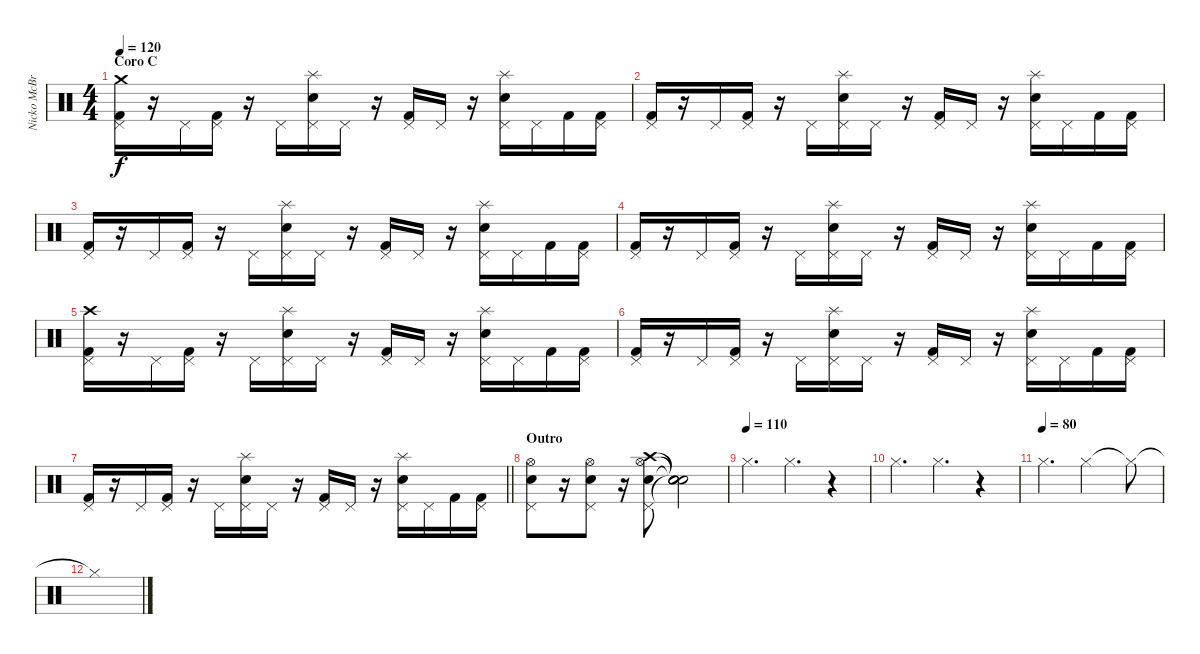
\track ("Nicko McBrain" "Nicko McBr") {instrument percussion}
\staff {score}
\articulation defaults
\ts (4 4)
\section ("" "Coro C")
\tempo 120
\clef neutral
\ks c
("Kick (hit) 2" "Pedal Hi-Hat (hit)" "Crash medium (hit)").16{dy f} r.16 "Pedal Hi-Hat (hit)".16 ("Kick (hit) 2" "Pedal Hi-Hat (hit)").16 r.16 "Pedal Hi-Hat (hit)".16 ("Snare (hit) 2" "Pedal Hi-Hat (hit)" "Splash (hit)").16 "Pedal Hi-Hat (hit)".16 r.16 ("Kick (hit) 2" "Pedal Hi-Hat (hit)").16 "Pedal Hi-Hat (hit)".16 r.16 ("Snare (hit) 2" "Pedal Hi-Hat (hit)" "Splash (hit)").16 "Pedal Hi-Hat (hit)".16 "Kick (hit) 2".16 ("Kick (hit) 2" "Pedal Hi-Hat (hit)").16 |
("Kick (hit) 2" "Pedal Hi-Hat (hit)").16 r.16 "Pedal Hi-Hat (hit)".16 ("Kick (hit) 2" "Pedal Hi-Hat (hit)").16 r.16 "Pedal Hi-Hat (hit)".16 ("Snare (hit) 2" "Pedal Hi-Hat (hit)" "Splash (hit)").16 "Pedal Hi-Hat (hit)".16 r.16 ("Kick (hit) 2" "Pedal Hi-Hat (hit)").16 "Pedal Hi-Hat (hit)".16 r.16 ("Snare (hit) 2" "Pedal Hi-Hat (hit)" "Splash (hit)").16 "Pedal Hi-Hat (hit)".16 "Kick (hit) 2".16 ("Kick (hit) 2" "Pedal Hi-Hat (hit)").16 |
("Kick (hit) 2" "Pedal Hi-Hat (hit)").16 r.16 "Pedal Hi-Hat (hit)".16 ("Kick (hit) 2" "Pedal Hi-Hat (hit)").16 r.16 "Pedal Hi-Hat (hit)".16 ("Snare (hit) 2" "Pedal Hi-Hat (hit)" "Splash (hit)").16 "Pedal Hi-Hat (hit)".16 r.16 ("Kick (hit) 2" "Pedal Hi-Hat (hit)").16 "Pedal Hi-Hat (hit)".16 r.16 ("Snare (hit) 2" "Pedal Hi-Hat (hit)" "Splash (hit)").16 "Pedal Hi-Hat (hit)".16 "Kick (hit) 2".16 ("Kick (hit) 2" "Pedal Hi-Hat (hit)").16 |
("Kick (hit) 2" "Pedal Hi-Hat (hit)").16 r.16 "Pedal Hi-Hat (hit)".16 ("Kick (hit) 2" "Pedal Hi-Hat (hit)").16 r.16 "Pedal Hi-Hat (hit)".16 ("Snare (hit) 2" "Pedal Hi-Hat (hit)" "Splash (hit)").16 "Pedal Hi-Hat (hit)".16 r.16 ("Kick (hit) 2" "Pedal Hi-Hat (hit)").16 "Pedal Hi-Hat (hit)".16 r.16 ("Snare (hit) 2" "Pedal Hi-Hat (hit)" "Splash (hit)").16 "Pedal Hi-Hat (hit)".16 "Kick (hit) 2".16 ("Kick (hit) 2" "Pedal Hi-Hat (hit)").16 |
("Kick (hit) 2" "Pedal Hi-Hat (hit)" "Crash high (hit)").16 r.16 "Pedal Hi-Hat (hit)".16 ("Kick (hit) 2" "Pedal Hi-Hat (hit)").16 r.16 "Pedal Hi-Hat (hit)".16 ("Snare (hit) 2" "Pedal Hi-Hat (hit)" "Splash (hit)").16 "Pedal Hi-Hat (hit)".16 r.16 ("Kick (hit) 2" "Pedal Hi-Hat (hit)").16 "Pedal Hi-Hat (hit)".16 r.16 ("Snare (hit) 2" "Pedal Hi-Hat (hit)" "Splash (hit)").16 "Pedal Hi-Hat (hit)".16 "Kick (hit) 2".16 ("Kick (hit) 2" "Pedal Hi-Hat (hit)").16 |
("Kick (hit) 2" "Pedal Hi-Hat (hit)").16 r.16 "Pedal Hi-Hat (hit)".16 ("Kick (hit) 2" "Pedal Hi-Hat (hit)").16 r.16 "Pedal Hi-Hat (hit)".16 ("Snare (hit) 2" "Pedal Hi-Hat (hit)" "Splash (hit)").16 "Pedal Hi-Hat (hit)".16 r.16 ("Kick (hit) 2" "Pedal Hi-Hat (hit)").16 "Pedal Hi-Hat (hit)".16 r.16 ("Snare (hit) 2" "Pedal Hi-Hat (hit)" "Splash (hit)").16 "Pedal Hi-Hat (hit)".16 "Kick (hit) 2".16 ("Kick (hit) 2" "Pedal Hi-Hat (hit)").16 |
\barLineRight lightlight
("Kick (hit) 2" "Pedal Hi-Hat (hit)").16 r.16 "Pedal Hi-Hat (hit)".16 ("Kick (hit) 2" "Pedal Hi-Hat (hit)").16 r.16 "Pedal Hi-Hat (hit)".16 ("Snare (hit) 2" "Pedal Hi-Hat (hit)" "Splash (hit)").16 "Pedal Hi-Hat (hit)".16 r.16 ("Kick (hit) 2" "Pedal Hi-Hat (hit)").16 "Pedal Hi-Hat (hit)".16 r.16 ("Snare (hit) 2" "Pedal Hi-Hat (hit)" "Splash (hit)").16 "Pedal Hi-Hat (hit)".16 "Kick (hit) 2".16 ("Kick (hit) 2" "Pedal Hi-Hat (hit)").16 |
\section ("" "Outro")
("Snare (hit) 2" "Pedal Hi-Hat (hit)" "Hi-Hat (open)").8 r.16 ("Snare (hit) 2" "Pedal Hi-Hat (hit)" "Hi-Hat (open)").8 r.16 ("Snare (hit) 2" "Pedal Hi-Hat (hit)" "Hi-Hat (open)" "Crash high (hit)").8 ("Snare (hit)"{t} "Snare (hit)"{t} "Snare (hit)"{t} "Snare (hit)"{t}).2 |
\tempo (110)
"Hi-Hat (closed)".4{d} "Hi-Hat (closed)".4{d} r.4 |
"Hi-Hat (closed)".4{d} "Hi-Hat (closed)".4{d} r.4 |
\tempo (80)
"Hi-Hat (closed)".4{d} "Hi-Hat (closed)".2 "Hi-Hat (closed)"{t}.8 |
"Hi-Hat (closed)"{t}.1
